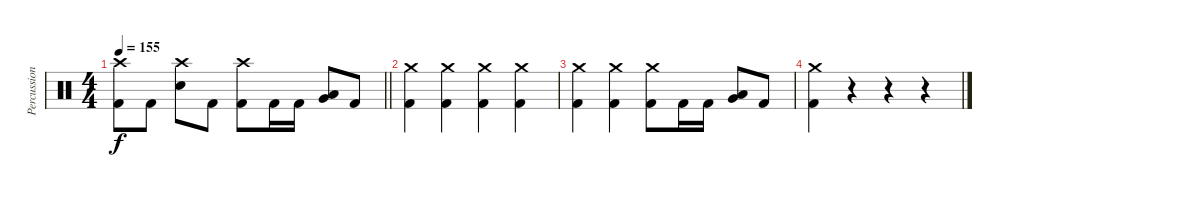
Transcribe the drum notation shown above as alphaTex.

\track ("Percussion" "Percussion") {instrument percussion}
\staff {score}
\articulation defaults
\ts (4 4)
\tempo 155
\clef neutral
\barLineRight lightlight
\ks c
("Crash high (hit)" "Kick (hit) 2").8{dy f} "Kick (hit) 2".8 ("Crash high (hit)" "Snare (hit) 2").8 "Kick (hit) 2".8 ("Crash high (hit)" "Kick (hit) 2").8 "Kick (hit) 2".16 "Kick (hit) 2".16 ("Very Low Tom (hit)" "Low Floor Tom (hit)").8 "Kick (hit) 2".8 |
("Crash medium (hit)" "Kick (hit) 2").4 ("Crash medium (hit)" "Kick (hit) 2").4 ("Crash medium (hit)" "Kick (hit) 2").4 ("Crash medium (hit)" "Kick (hit) 2").4 |
("Crash medium (hit)" "Kick (hit) 2").4 ("Crash medium (hit)" "Kick (hit) 2").4 ("Crash medium (hit)" "Kick (hit) 2").8 "Kick (hit) 2".16 "Kick (hit) 2".16 ("Very Low Tom (hit)" "Low Floor Tom (hit)").8 "Kick (hit) 2".8 |
("Crash medium (hit)" "Kick (hit) 2").4 r.4 r.4 r.4
